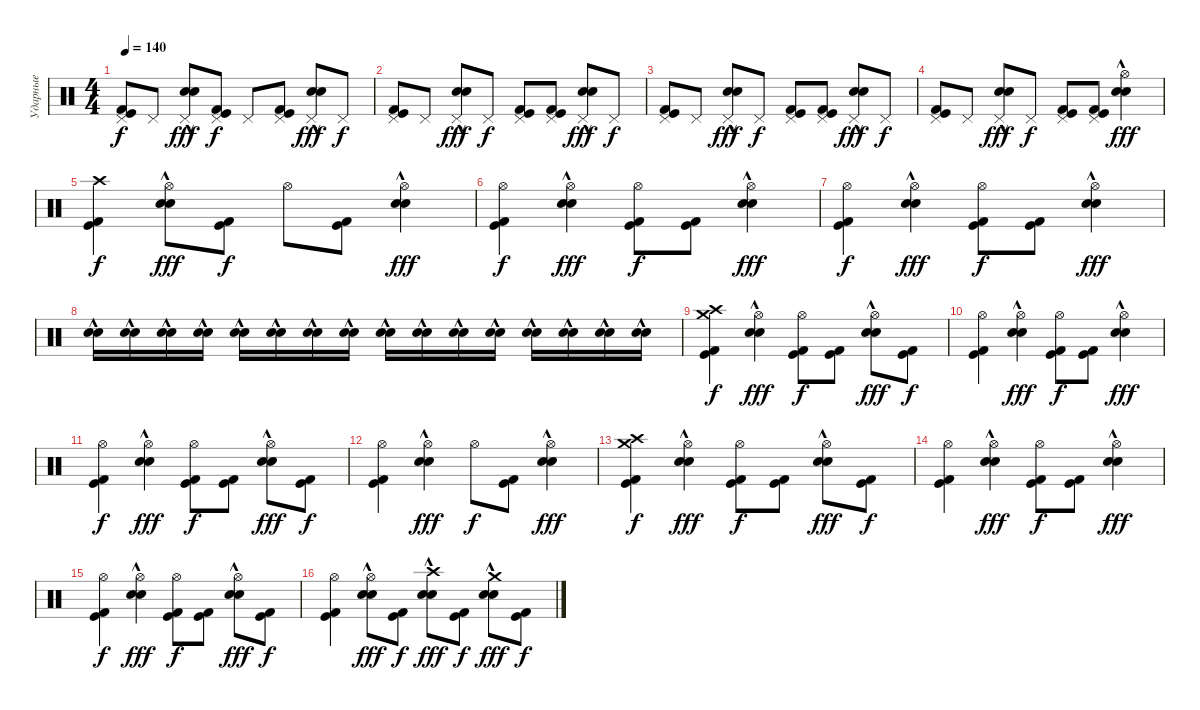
\track ("Ударные" "Ударные") {instrument percussion}
\staff {score}
\articulation defaults
\ts (4 4)
\tempo 140
\clef neutral
\ks c
("Pedal Hi-Hat (hit)" "Kick (hit)" "Kick (hit) 2").8{dy f} "Pedal Hi-Hat (hit)".8 ("Pedal Hi-Hat (hit)" "Snare (hit) 2"{hac} "Electric Snare (hit)"{hac}).8{dy fff} ("Pedal Hi-Hat (hit)" "Kick (hit)" "Kick (hit) 2").8{dy f} "Pedal Hi-Hat (hit)".8 ("Pedal Hi-Hat (hit)" "Kick (hit)" "Kick (hit) 2").8 ("Pedal Hi-Hat (hit)" "Snare (hit) 2"{hac} "Electric Snare (hit)"{hac}).8{dy fff} "Pedal Hi-Hat (hit)".8{dy f} |
("Pedal Hi-Hat (hit)" "Kick (hit)" "Kick (hit) 2").8 "Pedal Hi-Hat (hit)".8 ("Pedal Hi-Hat (hit)" "Snare (hit) 2"{hac} "Electric Snare (hit)"{hac}).8{dy fff} "Pedal Hi-Hat (hit)".8{dy f} ("Pedal Hi-Hat (hit)" "Kick (hit)" "Kick (hit) 2").8 ("Pedal Hi-Hat (hit)" "Kick (hit)" "Kick (hit) 2").8 ("Pedal Hi-Hat (hit)" "Snare (hit) 2"{hac} "Electric Snare (hit)"{hac}).8{dy fff} "Pedal Hi-Hat (hit)".8{dy f} |
("Pedal Hi-Hat (hit)" "Kick (hit)" "Kick (hit) 2").8 "Pedal Hi-Hat (hit)".8 ("Pedal Hi-Hat (hit)" "Snare (hit) 2"{hac} "Electric Snare (hit)"{hac}).8{dy fff} "Pedal Hi-Hat (hit)".8{dy f} ("Pedal Hi-Hat (hit)" "Kick (hit)" "Kick (hit) 2").8 ("Pedal Hi-Hat (hit)" "Kick (hit)" "Kick (hit) 2").8 ("Pedal Hi-Hat (hit)" "Snare (hit) 2"{hac} "Electric Snare (hit)"{hac}).8{dy fff} "Pedal Hi-Hat (hit)".8{dy f} |
("Pedal Hi-Hat (hit)" "Kick (hit)" "Kick (hit) 2").8 "Pedal Hi-Hat (hit)".8 ("Pedal Hi-Hat (hit)" "Snare (hit) 2"{hac} "Electric Snare (hit)"{hac}).8{dy fff} "Pedal Hi-Hat (hit)".8{dy f} ("Pedal Hi-Hat (hit)" "Kick (hit)" "Kick (hit) 2").8 ("Pedal Hi-Hat (hit)" "Kick (hit)" "Kick (hit) 2").8 ("Hi-Hat (open)" "Snare (hit) 2"{hac} "Electric Snare (hit)"{hac}).4{dy fff} |
("Crash high (hit)" "Kick (hit)" "Kick (hit) 2").4{dy f} ("Hi-Hat (open)" "Snare (hit) 2"{hac} "Electric Snare (hit)"{hac}).8{dy fff} ("Kick (hit)" "Kick (hit) 2").8{dy f} "Hi-Hat (open)".8 ("Kick (hit)" "Kick (hit) 2").8 ("Hi-Hat (open)" "Snare (hit) 2"{hac} "Electric Snare (hit)"{hac}).4{dy fff} |
("Hi-Hat (open)" "Kick (hit)" "Kick (hit) 2").4{dy f} ("Hi-Hat (open)" "Snare (hit) 2"{hac} "Electric Snare (hit)"{hac}).4{dy fff} ("Hi-Hat (open)" "Kick (hit)" "Kick (hit) 2").8{dy f} ("Kick (hit)" "Kick (hit) 2").8 ("Hi-Hat (open)" "Snare (hit) 2"{hac} "Electric Snare (hit)"{hac}).4{dy fff} |
("Hi-Hat (open)" "Kick (hit)" "Kick (hit) 2").4{dy f} ("Hi-Hat (open)" "Snare (hit) 2"{hac} "Electric Snare (hit)"{hac}).4{dy fff} ("Hi-Hat (open)" "Kick (hit)" "Kick (hit) 2").8{dy f} ("Kick (hit)" "Kick (hit) 2").8 ("Hi-Hat (open)" "Snare (hit) 2"{hac} "Electric Snare (hit)"{hac}).4{dy fff} |
("Snare (hit) 2"{hac} "Electric Snare (hit)"{hac}).16 ("Snare (hit) 2"{hac} "Electric Snare (hit)"{hac}).16 ("Snare (hit) 2"{hac} "Electric Snare (hit)"{hac}).16 ("Snare (hit) 2"{hac} "Electric Snare (hit)"{hac}).16 ("Snare (hit) 2"{hac} "Electric Snare (hit)"{hac}).16 ("Snare (hit) 2"{hac} "Electric Snare (hit)"{hac}).16 ("Snare (hit) 2"{hac} "Electric Snare (hit)"{hac}).16 ("Snare (hit) 2"{hac} "Electric Snare (hit)"{hac}).16 ("Snare (hit) 2"{hac} "Electric Snare (hit)"{hac}).16 ("Snare (hit) 2"{hac} "Electric Snare (hit)"{hac}).16 ("Snare (hit) 2"{hac} "Electric Snare (hit)"{hac}).16 ("Snare (hit) 2"{hac} "Electric Snare (hit)"{hac}).16 ("Snare (hit) 2"{hac} "Electric Snare (hit)"{hac}).16 ("Snare (hit) 2"{hac} "Electric Snare (hit)"{hac}).16 ("Snare (hit) 2"{hac} "Electric Snare (hit)"{hac}).16 ("Snare (hit) 2"{hac} "Electric Snare (hit)"{hac}).16 |
("Crash high (hit)" "Kick (hit)" "Kick (hit) 2" "Crash medium (hit)").4{dy f} ("Hi-Hat (open)" "Snare (hit) 2"{hac} "Electric Snare (hit)"{hac}).4{dy fff} ("Hi-Hat (open)" "Kick (hit)" "Kick (hit) 2").8{dy f} ("Kick (hit)" "Kick (hit) 2").8 ("Hi-Hat (open)" "Snare (hit) 2"{hac} "Electric Snare (hit)"{hac}).8{dy fff} ("Kick (hit)" "Kick (hit) 2").8{dy f} |
("Hi-Hat (open)" "Kick (hit)" "Kick (hit) 2").4 ("Hi-Hat (open)" "Snare (hit) 2"{hac} "Electric Snare (hit)"{hac}).4{dy fff} ("Hi-Hat (open)" "Kick (hit)" "Kick (hit) 2").8{dy f} ("Kick (hit)" "Kick (hit) 2").8 ("Hi-Hat (open)" "Snare (hit) 2"{hac} "Electric Snare (hit)"{hac}).4{dy fff} |
("Hi-Hat (open)" "Kick (hit)" "Kick (hit) 2").4{dy f} ("Hi-Hat (open)" "Snare (hit) 2"{hac} "Electric Snare (hit)"{hac}).4{dy fff} ("Hi-Hat (open)" "Kick (hit)" "Kick (hit) 2").8{dy f} ("Kick (hit)" "Kick (hit) 2").8 ("Hi-Hat (open)" "Snare (hit) 2"{hac} "Electric Snare (hit)"{hac}).8{dy fff} ("Kick (hit)" "Kick (hit) 2").8{dy f} |
("Hi-Hat (open)" "Kick (hit)" "Kick (hit) 2").4 ("Hi-Hat (open)" "Snare (hit) 2"{hac} "Electric Snare (hit)"{hac}).4{dy fff} "Hi-Hat (open)".8{dy f} ("Kick (hit)" "Kick (hit) 2").8 ("Hi-Hat (open)" "Snare (hit) 2"{hac} "Electric Snare (hit)"{hac}).4{dy fff} |
("Crash high (hit)" "Kick (hit)" "Kick (hit) 2" "Crash medium (hit)").4{dy f} ("Hi-Hat (open)" "Snare (hit) 2"{hac} "Electric Snare (hit)"{hac}).4{dy fff} ("Hi-Hat (open)" "Kick (hit)" "Kick (hit) 2").8{dy f} ("Kick (hit)" "Kick (hit) 2").8 ("Hi-Hat (open)" "Snare (hit) 2"{hac} "Electric Snare (hit)"{hac}).8{dy fff} ("Kick (hit)" "Kick (hit) 2").8{dy f} |
("Hi-Hat (open)" "Kick (hit)" "Kick (hit) 2").4 ("Hi-Hat (open)" "Snare (hit) 2"{hac} "Electric Snare (hit)"{hac}).4{dy fff} ("Hi-Hat (open)" "Kick (hit)" "Kick (hit) 2").8{dy f} ("Kick (hit)" "Kick (hit) 2").8 ("Hi-Hat (open)" "Snare (hit) 2"{hac} "Electric Snare (hit)"{hac}).4{dy fff} |
("Hi-Hat (open)" "Kick (hit)" "Kick (hit) 2").4{dy f} ("Hi-Hat (open)" "Snare (hit) 2"{hac} "Electric Snare (hit)"{hac}).4{dy fff} ("Hi-Hat (open)" "Kick (hit)" "Kick (hit) 2").8{dy f} ("Kick (hit)" "Kick (hit) 2").8 ("Hi-Hat (open)" "Snare (hit) 2"{hac} "Electric Snare (hit)"{hac}).8{dy fff} ("Kick (hit)" "Kick (hit) 2").8{dy f} |
("Hi-Hat (open)" "Kick (hit)" "Kick (hit) 2").4 ("Hi-Hat (open)" "Snare (hit) 2"{hac} "Electric Snare (hit)"{hac}).8{dy fff} ("Kick (hit)" "Kick (hit) 2").8{dy f} ("Crash high (hit)" "Snare (hit) 2"{hac} "Electric Snare (hit)"{hac}).8{dy fff} ("Kick (hit)" "Kick (hit) 2").8{dy f} ("Crash medium (hit)" "Snare (hit) 2"{hac} "Electric Snare (hit)"{hac}).8{dy fff} ("Kick (hit)" "Kick (hit) 2").8{dy f}
